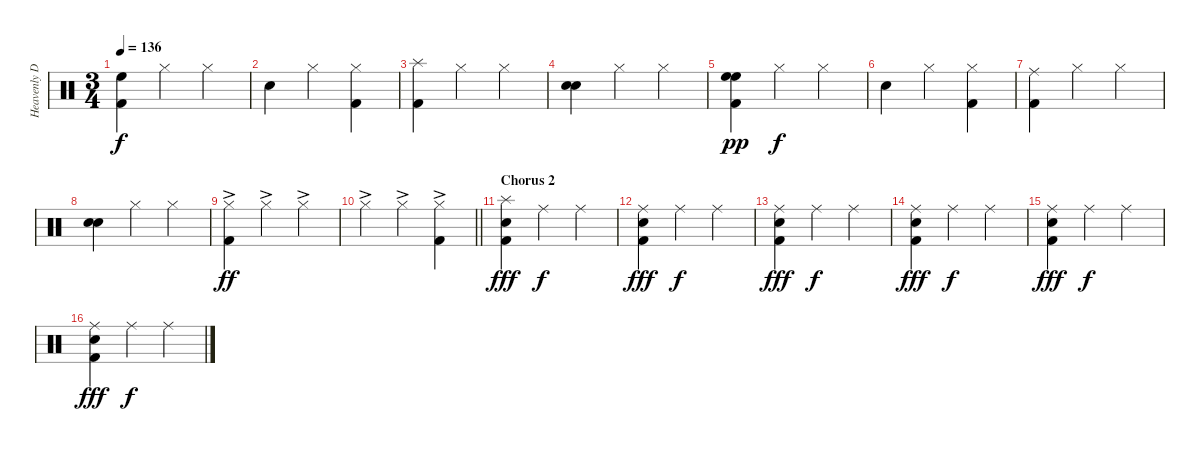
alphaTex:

\track ("Heavenly Drums" "Heavenly D") {instrument percussion}
\staff {score}
\articulation defaults
\ts (3 4)
\tempo 136
\clef neutral
\ks c
("High Floor Tom (hit)" "Kick (hit) 2").4{dy f} "Hi-Hat (closed)".4 "Hi-Hat (closed)".4 |
"Snare (hit) 2".4 "Hi-Hat (closed)".4 ("Hi-Hat (closed)" "Kick (hit) 2").4 |
("Splash (hit)" "Kick (hit) 2").4 "Hi-Hat (closed)".4 "Hi-Hat (closed)".4 |
("Electric Snare (hit)" "Electric Snare (hit)").4 "Hi-Hat (closed)".4 "Hi-Hat (closed)".4 |
("High Floor Tom (hit)" "High Floor Tom (hit)" "Kick (hit) 2").4{dy pp} "Hi-Hat (closed)".4{dy f} "Hi-Hat (closed)".4 |
"Snare (hit) 2".4 "Hi-Hat (closed)".4 ("Hi-Hat (closed)" "Kick (hit) 2").4 |
("Ride (middle)" "Kick (hit) 2").4 "Hi-Hat (closed)".4 "Hi-Hat (closed)".4 |
("Electric Snare (hit)" "Electric Snare (hit)").4 "Hi-Hat (closed)".4 "Hi-Hat (closed)".4 |
("Hi-Hat (closed)"{ac} "Kick (hit) 2").4{dy ff} "Hi-Hat (closed)"{ac}.4 "Hi-Hat (closed)"{ac}.4 |
\barLineRight lightlight "Hi-Hat (closed)"{ac}.4 "Hi-Hat (closed)"{ac}.4
("Hi-Hat (closed)"{ac} "Kick (hit) 2").4 |
\section ("" "Chorus 2")
("Splash (hit)" "Snare (hit) 2" "Kick (hit) 2").4{dy fff} "Ride (middle)".4{dy f} "Ride (middle)".4 |
("Snare (hit) 2" "Ride (middle)" "Kick (hit) 2").4{dy fff} "Ride (middle)".4{dy f} "Ride (middle)".4 |
("Snare (hit) 2" "Ride (middle)" "Kick (hit) 2").4{dy fff} "Ride (middle)".4{dy f} "Ride (middle)".4 |
("Snare (hit) 2" "Ride (middle)" "Kick (hit) 2").4{dy fff} "Ride (middle)".4{dy f} "Ride (middle)".4 |
("Snare (hit) 2" "Ride (middle)" "Kick (hit) 2").4{dy fff} "Ride (middle)".4{dy f} "Ride (middle)".4 |
("Snare (hit) 2" "Ride (middle)" "Kick (hit) 2").4{dy fff} "Ride (middle)".4{dy f} "Ride (middle)".4
